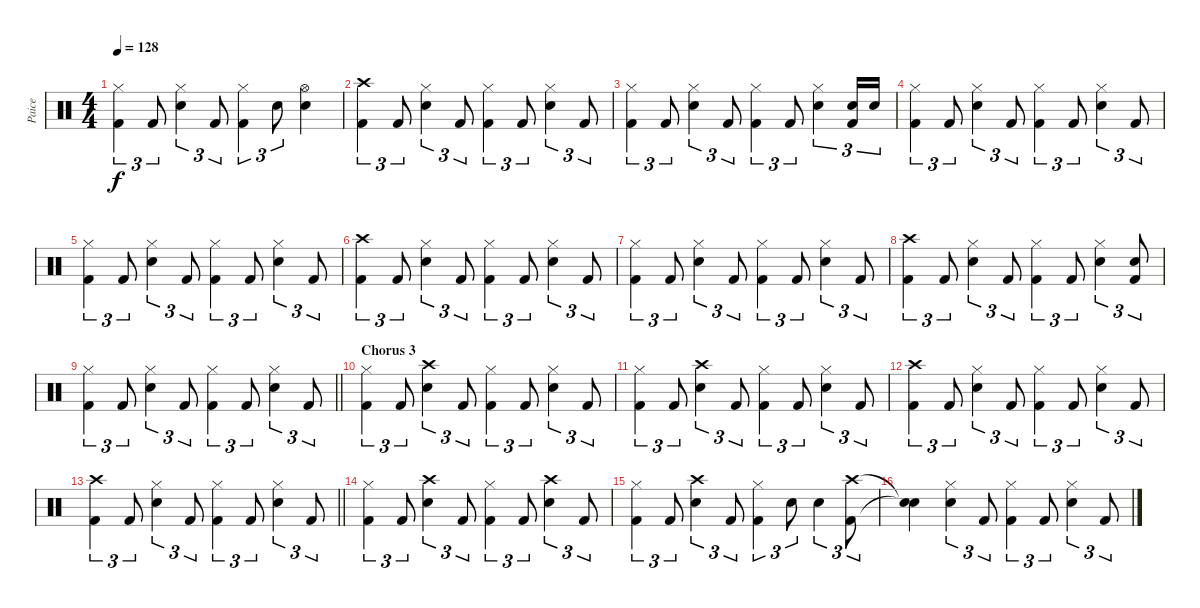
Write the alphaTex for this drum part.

\track ("Paice" "Paice") {instrument percussion}
\staff {score}
\articulation defaults
\ts (4 4)
\tempo 128
\clef neutral
\ks c
("Hi-Hat (closed)" "Kick (hit) 2").4{tu (3 2) dy f} "Kick (hit) 2".8{tu (3 2)} ("Hi-Hat (closed)" "Snare (hit) 2").4{tu (3 2)} "Kick (hit) 2".8{tu (3 2)} ("Hi-Hat (closed)" "Kick (hit) 2").4{tu (3 2)} "Snare (hit) 2".8{tu (3 2)} ("Hi-Hat (open)" "Snare (hit) 2").4 |
("Crash high (hit)" "Kick (hit) 2").4{tu (3 2)} "Kick (hit) 2".8{tu (3 2)} ("Hi-Hat (closed)" "Snare (hit) 2").4{tu (3 2)} "Kick (hit) 2".8{tu (3 2)} ("Hi-Hat (closed)" "Kick (hit) 2").4{tu (3 2)} "Kick (hit) 2".8{tu (3 2)} ("Hi-Hat (closed)" "Snare (hit) 2").4{tu (3 2)} "Kick (hit) 2".8{tu (3 2)} |
("Hi-Hat (closed)" "Kick (hit) 2").4{tu (3 2)} "Kick (hit) 2".8{tu (3 2)} ("Hi-Hat (closed)" "Snare (hit) 2").4{tu (3 2)} "Kick (hit) 2".8{tu (3 2)} ("Hi-Hat (closed)" "Kick (hit) 2").4{tu (3 2)} "Kick (hit) 2".8{tu (3 2)} ("Hi-Hat (closed)" "Snare (hit) 2").4{tu (3 2)} ("Snare (hit) 2" "Kick (hit) 2").16{tu (3 2)} "Snare (hit) 2".16{tu (3 2)} |
("Hi-Hat (closed)" "Kick (hit) 2").4{tu (3 2)} "Kick (hit) 2".8{tu (3 2)} ("Hi-Hat (closed)" "Snare (hit) 2").4{tu (3 2)} "Kick (hit) 2".8{tu (3 2)} ("Hi-Hat (closed)" "Kick (hit) 2").4{tu (3 2)} "Kick (hit) 2".8{tu (3 2)} ("Hi-Hat (closed)" "Snare (hit) 2").4{tu (3 2)} "Kick (hit) 2".8{tu (3 2)} |
("Hi-Hat (closed)" "Kick (hit) 2").4{tu (3 2)} "Kick (hit) 2".8{tu (3 2)} ("Hi-Hat (closed)" "Snare (hit) 2").4{tu (3 2)} "Kick (hit) 2".8{tu (3 2)} ("Hi-Hat (closed)" "Kick (hit) 2").4{tu (3 2)} "Kick (hit) 2".8{tu (3 2)} ("Hi-Hat (closed)" "Snare (hit) 2").4{tu (3 2)} "Kick (hit) 2".8{tu (3 2)} |
("Crash high (hit)" "Kick (hit) 2").4{tu (3 2)} "Kick (hit) 2".8{tu (3 2)} ("Hi-Hat (closed)" "Snare (hit) 2").4{tu (3 2)} "Kick (hit) 2".8{tu (3 2)} ("Hi-Hat (closed)" "Kick (hit) 2").4{tu (3 2)} "Kick (hit) 2".8{tu (3 2)} ("Hi-Hat (closed)" "Snare (hit) 2").4{tu (3 2)} "Kick (hit) 2".8{tu (3 2)} |
("Hi-Hat (closed)" "Kick (hit) 2").4{tu (3 2)} "Kick (hit) 2".8{tu (3 2)} ("Hi-Hat (closed)" "Snare (hit) 2").4{tu (3 2)} "Kick (hit) 2".8{tu (3 2)} ("Hi-Hat (closed)" "Kick (hit) 2").4{tu (3 2)} "Kick (hit) 2".8{tu (3 2)} ("Hi-Hat (closed)" "Snare (hit) 2").4{tu (3 2)} "Kick (hit) 2".8{tu (3 2)} |
("Crash high (hit)" "Kick (hit) 2").4{tu (3 2)} "Kick (hit) 2".8{tu (3 2)} ("Hi-Hat (closed)" "Snare (hit) 2").4{tu (3 2)} "Kick (hit) 2".8{tu (3 2)} ("Hi-Hat (closed)" "Kick (hit) 2").4{tu (3 2)} "Kick (hit) 2".8{tu (3 2)} ("Hi-Hat (closed)" "Snare (hit) 2").4{tu (3 2)} ("Snare (hit) 2" "Kick (hit) 2").8{tu (3 2)} |
\barLineRight lightlight
("Hi-Hat (closed)" "Kick (hit) 2").4{tu (3 2)} "Kick (hit) 2".8{tu (3 2)} ("Hi-Hat (closed)" "Snare (hit) 2").4{tu (3 2)} "Kick (hit) 2".8{tu (3 2)} ("Hi-Hat (closed)" "Kick (hit) 2").4{tu (3 2)} "Kick (hit) 2".8{tu (3 2)} ("Hi-Hat (closed)" "Snare (hit) 2").4{tu (3 2)} "Kick (hit) 2".8{tu (3 2)} |
\section ("" "Chorus 3")
("Hi-Hat (closed)" "Kick (hit) 2").4{tu (3 2)} "Kick (hit) 2".8{tu (3 2)} ("Crash high (hit)" "Snare (hit) 2").4{tu (3 2)} "Kick (hit) 2".8{tu (3 2)} ("Hi-Hat (closed)" "Kick (hit) 2").4{tu (3 2)} "Kick (hit) 2".8{tu (3 2)} ("Hi-Hat (closed)" "Snare (hit) 2").4{tu (3 2)} "Kick (hit) 2".8{tu (3 2)} |
("Hi-Hat (closed)" "Kick (hit) 2").4{tu (3 2)} "Kick (hit) 2".8{tu (3 2)} ("Crash high (hit)" "Snare (hit) 2").4{tu (3 2)} "Kick (hit) 2".8{tu (3 2)} ("Hi-Hat (closed)" "Kick (hit) 2").4{tu (3 2)} "Kick (hit) 2".8{tu (3 2)} ("Hi-Hat (closed)" "Snare (hit) 2").4{tu (3 2)} "Kick (hit) 2".8{tu (3 2)} |
("Crash high (hit)" "Kick (hit) 2").4{tu (3 2)} "Kick (hit) 2".8{tu (3 2)} ("Hi-Hat (closed)" "Snare (hit) 2").4{tu (3 2)} "Kick (hit) 2".8{tu (3 2)} ("Hi-Hat (closed)" "Kick (hit) 2").4{tu (3 2)} "Kick (hit) 2".8{tu (3 2)} ("Hi-Hat (closed)" "Snare (hit) 2").4{tu (3 2)} "Kick (hit) 2".8{tu (3 2)} |
\barLineRight lightlight
("Crash high (hit)" "Kick (hit) 2").4{tu (3 2)} "Kick (hit) 2".8{tu (3 2)} ("Hi-Hat (closed)" "Snare (hit) 2").4{tu (3 2)} "Kick (hit) 2".8{tu (3 2)} ("Hi-Hat (closed)" "Kick (hit) 2").4{tu (3 2)} "Kick (hit) 2".8{tu (3 2)} ("Hi-Hat (closed)" "Snare (hit) 2").4{tu (3 2)} "Kick (hit) 2".8{tu (3 2)} |
("Hi-Hat (closed)" "Kick (hit) 2").4{tu (3 2)} "Kick (hit) 2".8{tu (3 2)} ("Crash high (hit)" "Snare (hit) 2").4{tu (3 2)} "Kick (hit) 2".8{tu (3 2)} ("Hi-Hat (closed)" "Kick (hit) 2").4{tu (3 2)} "Kick (hit) 2".8{tu (3 2)} ("Crash high (hit)" "Snare (hit) 2").4{tu (3 2)} "Kick (hit) 2".8{tu (3 2)} |
("Hi-Hat (closed)" "Kick (hit) 2").4{tu (3 2)} "Kick (hit) 2".8{tu (3 2)} ("Crash high (hit)" "Snare (hit) 2").4{tu (3 2)} "Kick (hit) 2".8{tu (3 2)} ("Hi-Hat (closed)" "Kick (hit) 2").4{tu (3 2)} "Snare (hit) 2".8{tu (3 2)} "Snare (hit) 2".4{tu (3 2)} ("Crash high (hit)" "Kick (hit) 2").8{tu (3 2)} |
("Snare (hit)"{t} "Snare (hit)"{t}).4 ("Hi-Hat (closed)" "Snare (hit) 2").4{tu (3 2)} "Kick (hit) 2".8{tu (3 2)} ("Hi-Hat (closed)" "Kick (hit) 2").4{tu (3 2)} "Kick (hit) 2".8{tu (3 2)} ("Hi-Hat (closed)" "Snare (hit) 2").4{tu (3 2)} "Kick (hit) 2".8{tu (3 2)}
